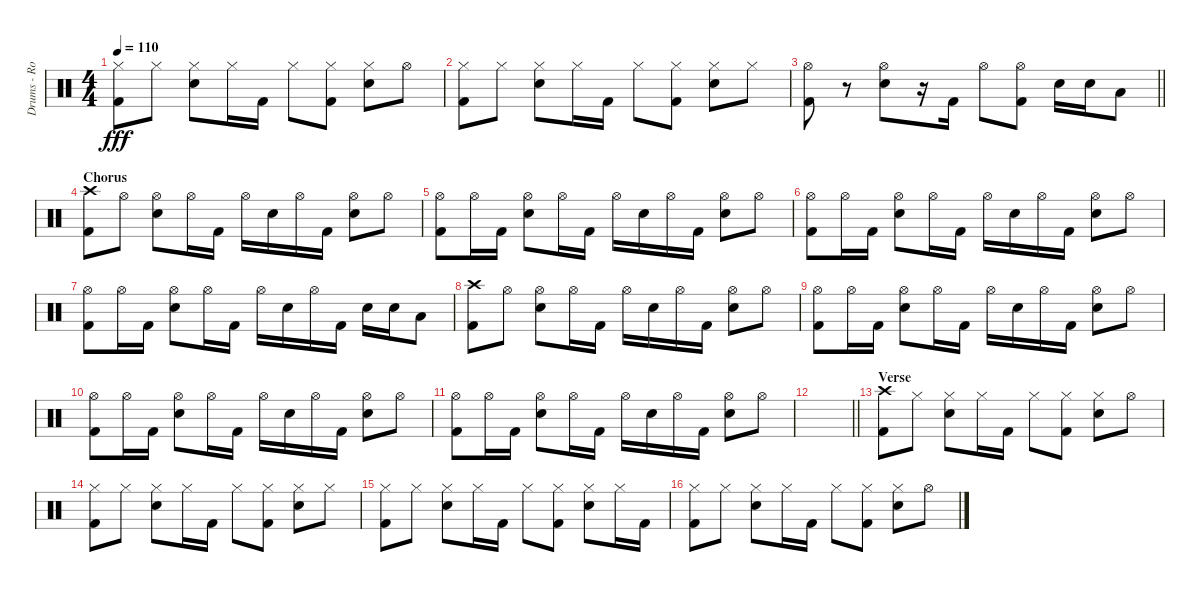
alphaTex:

\track ("Drums - Rob Bourdon" "Drums - Ro") {instrument percussion}
\staff {score}
\articulation defaults
\ts (4 4)
\tempo 110
\clef neutral
\ks c
("Hi-Hat (closed)" "Kick (hit) 2").8{dy fff} "Hi-Hat (closed)".8 ("Hi-Hat (closed)" "Snare (hit) 2").8 "Hi-Hat (closed)".16 "Kick (hit) 2".16 "Hi-Hat (closed)".8 ("Hi-Hat (closed)" "Kick (hit) 2").8 ("Hi-Hat (closed)" "Snare (hit) 2").8 "Hi-Hat (open)".8 |
("Hi-Hat (closed)" "Kick (hit) 2").8 "Hi-Hat (closed)".8 ("Hi-Hat (closed)" "Snare (hit) 2").8 "Hi-Hat (closed)".16 "Kick (hit) 2".16 "Hi-Hat (closed)".8 ("Hi-Hat (closed)" "Kick (hit) 2").8 ("Hi-Hat (closed)" "Snare (hit) 2").8 "Hi-Hat (closed)".8 |
\barLineRight lightlight
("Hi-Hat (open)" "Kick (hit) 2").8 r.8 ("Hi-Hat (open)" "Snare (hit) 2").8 r.16 "Kick (hit) 2".16 "Hi-Hat (open)".8 ("Hi-Hat (open)" "Kick (hit) 2").8 "Snare (hit) 2".16 "Snare (hit) 2".16 "Low Tom (hit)".8 |
\section ("" "Chorus")
("Crash high (hit)" "Kick (hit) 2").8 "Hi-Hat (open)".8 ("Hi-Hat (open)" "Snare (hit) 2").8 "Hi-Hat (open)".16 "Kick (hit) 2".16 "Hi-Hat (open)".16 "Snare (hit) 2".16 "Hi-Hat (open)".16 "Kick (hit) 2".16 ("Hi-Hat (open)" "Snare (hit) 2").8 "Hi-Hat (open)".8 |
("Hi-Hat (open)" "Kick (hit) 2").8 "Hi-Hat (open)".16 "Kick (hit) 2".16 ("Hi-Hat (open)" "Snare (hit) 2").8 "Hi-Hat (open)".16 "Kick (hit) 2".16 "Hi-Hat (open)".16 "Snare (hit) 2".16 "Hi-Hat (open)".16 "Kick (hit) 2".16 ("Hi-Hat (open)" "Snare (hit) 2").8 "Hi-Hat (open)".8 |
("Hi-Hat (open)" "Kick (hit) 2").8 "Hi-Hat (open)".16 "Kick (hit) 2".16 ("Hi-Hat (open)" "Snare (hit) 2").8 "Hi-Hat (open)".16 "Kick (hit) 2".16 "Hi-Hat (open)".16 "Snare (hit) 2".16 "Hi-Hat (open)".16 "Kick (hit) 2".16 ("Hi-Hat (open)" "Snare (hit) 2").8 "Hi-Hat (open)".8 |
("Hi-Hat (open)" "Kick (hit) 2").8 "Hi-Hat (open)".16 "Kick (hit) 2".16 ("Hi-Hat (open)" "Snare (hit) 2").8 "Hi-Hat (open)".16 "Kick (hit) 2".16 "Hi-Hat (open)".16 "Snare (hit) 2".16 "Hi-Hat (open)".16 "Kick (hit) 2".16 "Snare (hit) 2".16 "Snare (hit) 2".16 "Low Tom (hit)".8 |
("Crash high (hit)" "Kick (hit) 2").8 "Hi-Hat (open)".8 ("Hi-Hat (open)" "Snare (hit) 2").8 "Hi-Hat (open)".16 "Kick (hit) 2".16 "Hi-Hat (open)".16 "Snare (hit) 2".16 "Hi-Hat (open)".16 "Kick (hit) 2".16 ("Hi-Hat (open)" "Snare (hit) 2").8 "Hi-Hat (open)".8 |
("Hi-Hat (open)" "Kick (hit) 2").8 "Hi-Hat (open)".16 "Kick (hit) 2".16 ("Hi-Hat (open)" "Snare (hit) 2").8 "Hi-Hat (open)".16 "Kick (hit) 2".16 "Hi-Hat (open)".16 "Snare (hit) 2".16 "Hi-Hat (open)".16 "Kick (hit) 2".16 ("Hi-Hat (open)" "Snare (hit) 2").8 "Hi-Hat (open)".8 |
("Hi-Hat (open)" "Kick (hit) 2").8 "Hi-Hat (open)".16 "Kick (hit) 2".16 ("Hi-Hat (open)" "Snare (hit) 2").8 "Hi-Hat (open)".16 "Kick (hit) 2".16 "Hi-Hat (open)".16 "Snare (hit) 2".16 "Hi-Hat (open)".16 "Kick (hit) 2".16 ("Hi-Hat (open)" "Snare (hit) 2").8 "Hi-Hat (open)".8 |
("Hi-Hat (open)" "Kick (hit) 2").8 "Hi-Hat (open)".16 "Kick (hit) 2".16 ("Hi-Hat (open)" "Snare (hit) 2").8 "Hi-Hat (open)".16 "Kick (hit) 2".16 "Hi-Hat (open)".16 "Snare (hit) 2".16 "Hi-Hat (open)".16 "Kick (hit) 2".16 ("Hi-Hat (open)" "Snare (hit) 2").8 "Hi-Hat (open)".8 |
\barLineRight lightlight
|
\section ("" "Verse")
("Crash high (hit)" "Kick (hit) 2").8 "Hi-Hat (closed)".8 ("Hi-Hat (closed)" "Snare (hit) 2").8 "Hi-Hat (closed)".16 "Kick (hit) 2".16 "Hi-Hat (closed)".8 ("Hi-Hat (closed)" "Kick (hit) 2").8 ("Hi-Hat (closed)" "Snare (hit) 2").8 "Hi-Hat (open)".8 |
("Hi-Hat (closed)" "Kick (hit) 2").8 "Hi-Hat (closed)".8 ("Hi-Hat (closed)" "Snare (hit) 2").8 "Hi-Hat (closed)".16 "Kick (hit) 2".16 "Hi-Hat (closed)".8 ("Hi-Hat (closed)" "Kick (hit) 2").8 ("Hi-Hat (closed)" "Snare (hit) 2").8 "Hi-Hat (closed)".8 |
("Hi-Hat (closed)" "Kick (hit) 2").8 "Hi-Hat (closed)".8 ("Hi-Hat (closed)" "Snare (hit) 2").8 "Hi-Hat (closed)".16 "Kick (hit) 2".16 "Hi-Hat (closed)".8 ("Hi-Hat (closed)" "Kick (hit) 2").8 ("Hi-Hat (closed)" "Snare (hit) 2").8 "Hi-Hat (closed)".16 "Kick (hit) 2".16 |
("Hi-Hat (closed)" "Kick (hit) 2").8 "Hi-Hat (closed)".8 ("Hi-Hat (closed)" "Snare (hit) 2").8 "Hi-Hat (closed)".16 "Kick (hit) 2".16 "Hi-Hat (closed)".8 ("Hi-Hat (closed)" "Kick (hit) 2").8 ("Hi-Hat (closed)" "Snare (hit) 2").8 "Hi-Hat (open)".8
